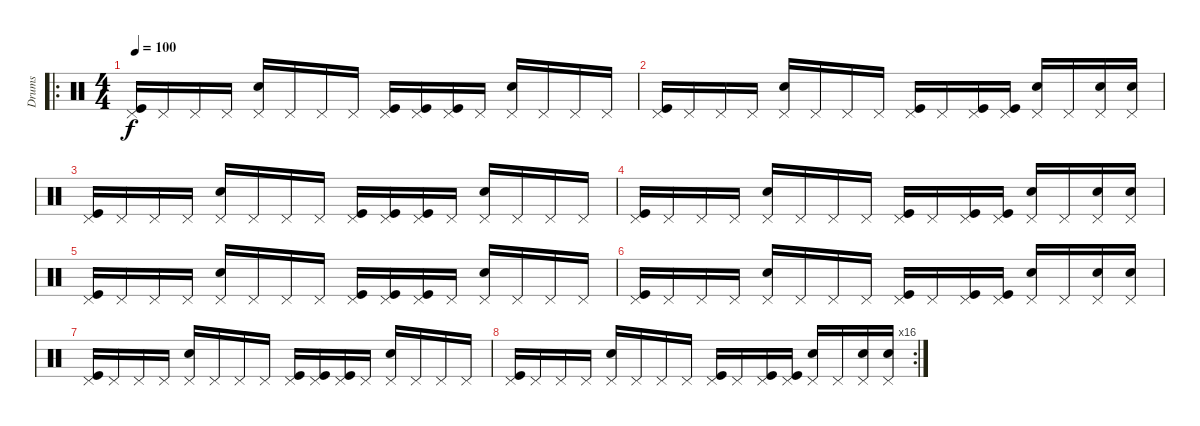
\track ("Drums" "Drums") {instrument percussion}
\staff {score}
\articulation defaults
\ro
\ts (4 4)
\tempo 100
\clef neutral
\ks c
("Pedal Hi-Hat (hit)" "Kick (hit)").16{dy f} "Pedal Hi-Hat (hit)".16 "Pedal Hi-Hat (hit)".16 "Pedal Hi-Hat (hit)".16 ("Pedal Hi-Hat (hit)" "Electric Snare (hit)").16 "Pedal Hi-Hat (hit)".16 "Pedal Hi-Hat (hit)".16 "Pedal Hi-Hat (hit)".16 ("Pedal Hi-Hat (hit)" "Kick (hit)").16 ("Pedal Hi-Hat (hit)" "Kick (hit)").16 ("Pedal Hi-Hat (hit)" "Kick (hit)").16 "Pedal Hi-Hat (hit)".16 ("Pedal Hi-Hat (hit)" "Electric Snare (hit)").16 "Pedal Hi-Hat (hit)".16 "Pedal Hi-Hat (hit)".16 "Pedal Hi-Hat (hit)".16 |
("Pedal Hi-Hat (hit)" "Kick (hit)").16 "Pedal Hi-Hat (hit)".16 "Pedal Hi-Hat (hit)".16 "Pedal Hi-Hat (hit)".16 ("Pedal Hi-Hat (hit)" "Electric Snare (hit)").16 "Pedal Hi-Hat (hit)".16 "Pedal Hi-Hat (hit)".16 "Pedal Hi-Hat (hit)".16 ("Pedal Hi-Hat (hit)" "Kick (hit)").16 "Pedal Hi-Hat (hit)".16 ("Pedal Hi-Hat (hit)" "Kick (hit)").16 ("Pedal Hi-Hat (hit)" "Kick (hit)").16 ("Pedal Hi-Hat (hit)" "Electric Snare (hit)").16 "Pedal Hi-Hat (hit)".16 ("Pedal Hi-Hat (hit)" "Electric Snare (hit)").16 ("Pedal Hi-Hat (hit)" "Electric Snare (hit)").16 |
("Pedal Hi-Hat (hit)" "Kick (hit)").16 "Pedal Hi-Hat (hit)".16 "Pedal Hi-Hat (hit)".16 "Pedal Hi-Hat (hit)".16 ("Pedal Hi-Hat (hit)" "Electric Snare (hit)").16 "Pedal Hi-Hat (hit)".16 "Pedal Hi-Hat (hit)".16 "Pedal Hi-Hat (hit)".16 ("Pedal Hi-Hat (hit)" "Kick (hit)").16 ("Pedal Hi-Hat (hit)" "Kick (hit)").16 ("Pedal Hi-Hat (hit)" "Kick (hit)").16 "Pedal Hi-Hat (hit)".16 ("Pedal Hi-Hat (hit)" "Electric Snare (hit)").16 "Pedal Hi-Hat (hit)".16 "Pedal Hi-Hat (hit)".16 "Pedal Hi-Hat (hit)".16 |
("Pedal Hi-Hat (hit)" "Kick (hit)").16 "Pedal Hi-Hat (hit)".16 "Pedal Hi-Hat (hit)".16 "Pedal Hi-Hat (hit)".16 ("Pedal Hi-Hat (hit)" "Electric Snare (hit)").16 "Pedal Hi-Hat (hit)".16 "Pedal Hi-Hat (hit)".16 "Pedal Hi-Hat (hit)".16 ("Pedal Hi-Hat (hit)" "Kick (hit)").16 "Pedal Hi-Hat (hit)".16 ("Pedal Hi-Hat (hit)" "Kick (hit)").16 ("Pedal Hi-Hat (hit)" "Kick (hit)").16 ("Pedal Hi-Hat (hit)" "Electric Snare (hit)").16 "Pedal Hi-Hat (hit)".16 ("Pedal Hi-Hat (hit)" "Electric Snare (hit)").16 ("Pedal Hi-Hat (hit)" "Electric Snare (hit)").16 |
("Pedal Hi-Hat (hit)" "Kick (hit)").16 "Pedal Hi-Hat (hit)".16 "Pedal Hi-Hat (hit)".16 "Pedal Hi-Hat (hit)".16 ("Pedal Hi-Hat (hit)" "Electric Snare (hit)").16 "Pedal Hi-Hat (hit)".16 "Pedal Hi-Hat (hit)".16 "Pedal Hi-Hat (hit)".16 ("Pedal Hi-Hat (hit)" "Kick (hit)").16 ("Pedal Hi-Hat (hit)" "Kick (hit)").16 ("Pedal Hi-Hat (hit)" "Kick (hit)").16 "Pedal Hi-Hat (hit)".16 ("Pedal Hi-Hat (hit)" "Electric Snare (hit)").16 "Pedal Hi-Hat (hit)".16 "Pedal Hi-Hat (hit)".16 "Pedal Hi-Hat (hit)".16 |
("Pedal Hi-Hat (hit)" "Kick (hit)").16 "Pedal Hi-Hat (hit)".16 "Pedal Hi-Hat (hit)".16 "Pedal Hi-Hat (hit)".16 ("Pedal Hi-Hat (hit)" "Electric Snare (hit)").16 "Pedal Hi-Hat (hit)".16 "Pedal Hi-Hat (hit)".16 "Pedal Hi-Hat (hit)".16 ("Pedal Hi-Hat (hit)" "Kick (hit)").16 "Pedal Hi-Hat (hit)".16 ("Pedal Hi-Hat (hit)" "Kick (hit)").16 ("Pedal Hi-Hat (hit)" "Kick (hit)").16 ("Pedal Hi-Hat (hit)" "Electric Snare (hit)").16 "Pedal Hi-Hat (hit)".16 ("Pedal Hi-Hat (hit)" "Electric Snare (hit)").16 ("Pedal Hi-Hat (hit)" "Electric Snare (hit)").16 |
("Pedal Hi-Hat (hit)" "Kick (hit)").16 "Pedal Hi-Hat (hit)".16 "Pedal Hi-Hat (hit)".16 "Pedal Hi-Hat (hit)".16 ("Pedal Hi-Hat (hit)" "Electric Snare (hit)").16 "Pedal Hi-Hat (hit)".16 "Pedal Hi-Hat (hit)".16 "Pedal Hi-Hat (hit)".16 ("Pedal Hi-Hat (hit)" "Kick (hit)").16 ("Pedal Hi-Hat (hit)" "Kick (hit)").16 ("Pedal Hi-Hat (hit)" "Kick (hit)").16 "Pedal Hi-Hat (hit)".16 ("Pedal Hi-Hat (hit)" "Electric Snare (hit)").16 "Pedal Hi-Hat (hit)".16 "Pedal Hi-Hat (hit)".16 "Pedal Hi-Hat (hit)".16 |
\rc 16
("Pedal Hi-Hat (hit)" "Kick (hit)").16 "Pedal Hi-Hat (hit)".16 "Pedal Hi-Hat (hit)".16 "Pedal Hi-Hat (hit)".16 ("Pedal Hi-Hat (hit)" "Electric Snare (hit)").16 "Pedal Hi-Hat (hit)".16 "Pedal Hi-Hat (hit)".16 "Pedal Hi-Hat (hit)".16 ("Pedal Hi-Hat (hit)" "Kick (hit)").16 "Pedal Hi-Hat (hit)".16 ("Pedal Hi-Hat (hit)" "Kick (hit)").16 ("Pedal Hi-Hat (hit)" "Kick (hit)").16 ("Pedal Hi-Hat (hit)" "Electric Snare (hit)").16 "Pedal Hi-Hat (hit)".16 ("Pedal Hi-Hat (hit)" "Electric Snare (hit)").16 ("Pedal Hi-Hat (hit)" "Electric Snare (hit)").16
